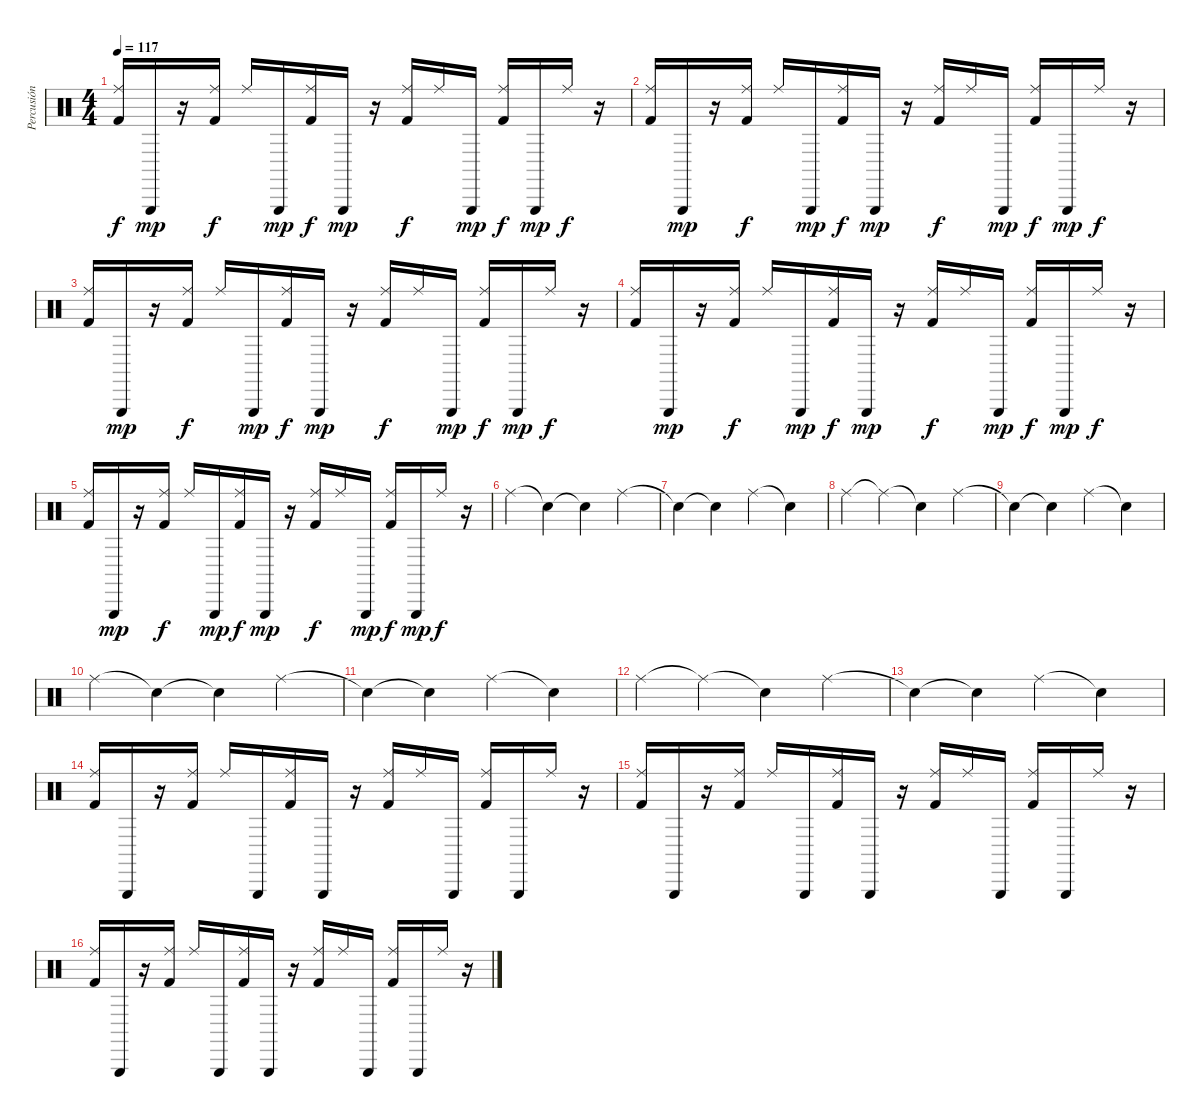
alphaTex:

\track ("Percusión" "Percusión") {instrument percussion}
\staff {score}
\articulation defaults
\ts (4 4)
\tempo 117
\clef neutral
\ks c
("Ride (middle)" "Kick (hit) 2").16{dy f} "Triangle (hit)".16{dy mp} r.16 ("Ride (middle)" "Kick (hit) 2").16{dy f} "Ride (middle)".16 "Triangle (hit)".16{dy mp} ("Ride (middle)" "Kick (hit) 2").16{dy f} "Triangle (hit)".16{dy mp} r.16 ("Ride (middle)" "Kick (hit) 2").16{dy f} "Ride (middle)".16 "Triangle (hit)".16{dy mp} ("Ride (middle)" "Kick (hit) 2").16{dy f} "Triangle (hit)".16{dy mp} "Ride (middle)".16{dy f} r.16 |
("Ride (middle)" "Kick (hit) 2").16 "Triangle (hit)".16{dy mp} r.16 ("Ride (middle)" "Kick (hit) 2").16{dy f} "Ride (middle)".16 "Triangle (hit)".16{dy mp} ("Ride (middle)" "Kick (hit) 2").16{dy f} "Triangle (hit)".16{dy mp} r.16 ("Ride (middle)" "Kick (hit) 2").16{dy f} "Ride (middle)".16 "Triangle (hit)".16{dy mp} ("Ride (middle)" "Kick (hit) 2").16{dy f} "Triangle (hit)".16{dy mp} "Ride (middle)".16{dy f} r.16 |
("Ride (middle)" "Kick (hit) 2").16 "Triangle (hit)".16{dy mp} r.16 ("Ride (middle)" "Kick (hit) 2").16{dy f} "Ride (middle)".16 "Triangle (hit)".16{dy mp} ("Ride (middle)" "Kick (hit) 2").16{dy f} "Triangle (hit)".16{dy mp} r.16 ("Ride (middle)" "Kick (hit) 2").16{dy f} "Ride (middle)".16 "Triangle (hit)".16{dy mp} ("Ride (middle)" "Kick (hit) 2").16{dy f} "Triangle (hit)".16{dy mp} "Ride (middle)".16{dy f} r.16 |
("Ride (middle)" "Kick (hit) 2").16 "Triangle (hit)".16{dy mp} r.16 ("Ride (middle)" "Kick (hit) 2").16{dy f} "Ride (middle)".16 "Triangle (hit)".16{dy mp} ("Ride (middle)" "Kick (hit) 2").16{dy f} "Triangle (hit)".16{dy mp} r.16 ("Ride (middle)" "Kick (hit) 2").16{dy f} "Ride (middle)".16 "Triangle (hit)".16{dy mp} ("Ride (middle)" "Kick (hit) 2").16{dy f} "Triangle (hit)".16{dy mp} "Ride (middle)".16{dy f} r.16 |
("Ride (middle)" "Kick (hit) 2").16 "Triangle (hit)".16{dy mp} r.16 ("Ride (middle)" "Kick (hit) 2").16{dy f} "Ride (middle)".16 "Triangle (hit)".16{dy mp} ("Ride (middle)" "Kick (hit) 2").16{dy f} "Triangle (hit)".16{dy mp} r.16 ("Ride (middle)" "Kick (hit) 2").16{dy f} "Ride (middle)".16 "Triangle (hit)".16{dy mp} ("Ride (middle)" "Kick (hit) 2").16{dy f} "Triangle (hit)".16{dy mp} "Ride (middle)".16{dy f} r.16 |
"Ride (middle)".4 "Snare (hit)"{t}.4 "Snare (hit)"{t}.4 "Ride (middle)".4 |
"Snare (hit)"{t}.4 "Snare (hit)"{t}.4 "Ride (middle)".4 "Snare (hit)"{t}.4 |
"Ride (middle)".4 "Ride (middle)"{t}.4 "Snare (hit)"{t}.4 "Ride (middle)".4 |
"Snare (hit)"{t}.4 "Snare (hit)"{t}.4 "Ride (middle)".4 "Snare (hit)"{t}.4 |
"Ride (middle)".4 "Snare (hit)"{t}.4 "Snare (hit)"{t}.4 "Ride (middle)".4 |
"Snare (hit)"{t}.4 "Snare (hit)"{t}.4 "Ride (middle)".4 "Snare (hit)"{t}.4 |
"Ride (middle)".4 "Ride (middle)"{t}.4 "Snare (hit)"{t}.4 "Ride (middle)".4 |
"Snare (hit)"{t}.4 "Snare (hit)"{t}.4 "Ride (middle)".4 "Snare (hit)"{t}.4 |
("Ride (middle)" "Kick (hit) 2").16 "Triangle (hit)".16 r.16 ("Ride (middle)" "Kick (hit) 2").16 "Ride (middle)".16 "Triangle (hit)".16 ("Ride (middle)" "Kick (hit) 2").16 "Triangle (hit)".16 r.16 ("Ride (middle)" "Kick (hit) 2").16 "Ride (middle)".16 "Triangle (hit)".16 ("Ride (middle)" "Kick (hit) 2").16 "Triangle (hit)".16 "Ride (middle)".16 r.16 |
("Ride (middle)" "Kick (hit) 2").16 "Triangle (hit)".16 r.16 ("Ride (middle)" "Kick (hit) 2").16 "Ride (middle)".16 "Triangle (hit)".16 ("Ride (middle)" "Kick (hit) 2").16 "Triangle (hit)".16 r.16 ("Ride (middle)" "Kick (hit) 2").16 "Ride (middle)".16 "Triangle (hit)".16 ("Ride (middle)" "Kick (hit) 2").16 "Triangle (hit)".16 "Ride (middle)".16 r.16 |
("Ride (middle)" "Kick (hit) 2").16 "Triangle (hit)".16 r.16 ("Ride (middle)" "Kick (hit) 2").16 "Ride (middle)".16 "Triangle (hit)".16 ("Ride (middle)" "Kick (hit) 2").16 "Triangle (hit)".16 r.16 ("Ride (middle)" "Kick (hit) 2").16 "Ride (middle)".16 "Triangle (hit)".16 ("Ride (middle)" "Kick (hit) 2").16 "Triangle (hit)".16 "Ride (middle)".16 r.16
